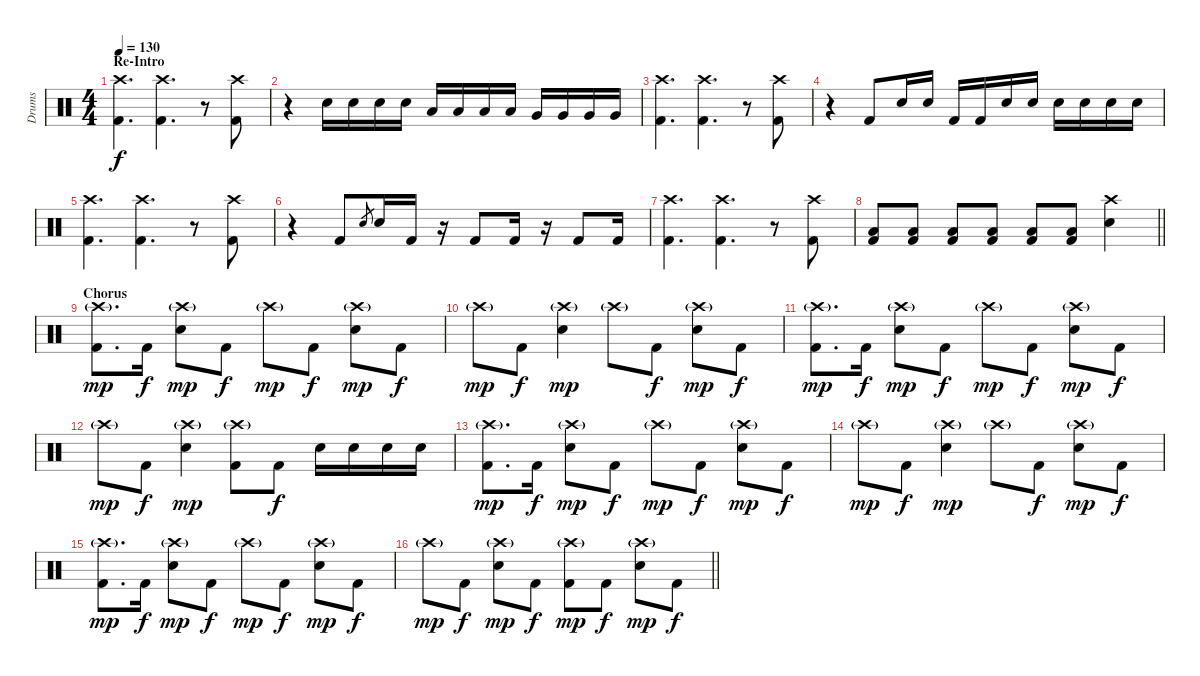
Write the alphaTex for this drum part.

\track ("Drums" "Drums") {instrument percussion}
\staff {score}
\articulation defaults
\ts (4 4)
\section ("" "Re-Intro")
\tempo 130
\clef neutral
\ks c
("Crash high (hit)" "Kick (hit) 2").4{d dy f} ("Crash high (hit)" "Kick (hit) 2").4{d} r.8 ("Crash high (hit)" "Kick (hit) 2").8 |
r.4 "Electric Snare (hit)".16 "Electric Snare (hit)".16 "Electric Snare (hit)".16 "Electric Snare (hit)".16 "Low Tom (hit)".16 "Low Tom (hit)".16 "Low Tom (hit)".16 "Low Tom (hit)".16 "Very Low Tom (hit)".16 "Very Low Tom (hit)".16 "Very Low Tom (hit)".16 "Very Low Tom (hit)".16 |
("Crash high (hit)" "Kick (hit) 2").4{d} ("Crash high (hit)" "Kick (hit) 2").4{d} r.8 ("Crash high (hit)" "Kick (hit) 2").8 |
r.4 "Kick (hit) 2".8 "Electric Snare (hit)".16 "Electric Snare (hit)".16 "Kick (hit) 2".16 "Kick (hit) 2".16 "Electric Snare (hit)".16 "Electric Snare (hit)".16 "Electric Snare (hit)".16 "Electric Snare (hit)".16 "Electric Snare (hit)".16 "Electric Snare (hit)".16 |
("Crash high (hit)" "Kick (hit) 2").4{d} ("Crash high (hit)" "Kick (hit) 2").4{d} r.8 ("Crash high (hit)" "Kick (hit) 2").8 |
r.4 "Kick (hit) 2".8 "Electric Snare (hit)".8{gr} "Electric Snare (hit)".16 "Kick (hit) 2".16 r.16 "Kick (hit) 2".8 "Kick (hit) 2".16 r.16 "Kick (hit) 2".8 "Kick (hit) 2".16 |
("Crash high (hit)" "Kick (hit) 2").4{d} ("Crash high (hit)" "Kick (hit) 2").4{d} r.8 ("Crash high (hit)" "Kick (hit) 2").8 |
\barLineRight lightlight
("Low Tom (hit)" "Kick (hit) 2").8 ("Low Tom (hit)" "Kick (hit) 2").8 ("Low Tom (hit)" "Kick (hit) 2").8 ("Low Tom (hit)" "Kick (hit) 2").8 ("Low Tom (hit)" "Kick (hit) 2").8 ("Low Tom (hit)" "Kick (hit) 2").8 ("Crash high (hit)" "Electric Snare (hit)").4 |
\section ("" "Chorus")
("Crash high (hit)"{g} "Kick (hit) 2").8{d dy mp} "Kick (hit) 2".16{dy f} ("Crash high (hit)"{g} "Electric Snare (hit)").8{dy mp} "Kick (hit) 2".8{dy f} "Crash high (hit)"{g}.8{dy mp} "Kick (hit) 2".8{dy f} ("Crash high (hit)"{g} "Electric Snare (hit)").8{dy mp} "Kick (hit) 2".8{dy f} |
"Crash high (hit)"{g}.8{dy mp} "Kick (hit) 2".8{dy f} ("Crash high (hit)"{g} "Electric Snare (hit)").4{dy mp} "Crash high (hit)"{g}.8 "Kick (hit) 2".8{dy f} ("Crash high (hit)"{g} "Electric Snare (hit)").8{dy mp} "Kick (hit) 2".8{dy f} |
("Crash high (hit)"{g} "Kick (hit) 2").8{d dy mp} "Kick (hit) 2".16{dy f} ("Crash high (hit)"{g} "Electric Snare (hit)").8{dy mp} "Kick (hit) 2".8{dy f} "Crash high (hit)"{g}.8{dy mp} "Kick (hit) 2".8{dy f} ("Crash high (hit)"{g} "Electric Snare (hit)").8{dy mp} "Kick (hit) 2".8{dy f} |
"Crash high (hit)"{g}.8{dy mp} "Kick (hit) 2".8{dy f} ("Crash high (hit)"{g} "Electric Snare (hit)").4{dy mp} ("Crash high (hit)"{g} "Kick (hit) 2").8 "Kick (hit) 2".8{dy f} "Electric Snare (hit)".16 "Electric Snare (hit)".16 "Electric Snare (hit)".16 "Electric Snare (hit)".16 |
("Crash high (hit)"{g} "Kick (hit) 2").8{d dy mp} "Kick (hit) 2".16{dy f} ("Crash high (hit)"{g} "Electric Snare (hit)").8{dy mp} "Kick (hit) 2".8{dy f} "Crash high (hit)"{g}.8{dy mp} "Kick (hit) 2".8{dy f} ("Crash high (hit)"{g} "Electric Snare (hit)").8{dy mp} "Kick (hit) 2".8{dy f} |
"Crash high (hit)"{g}.8{dy mp} "Kick (hit) 2".8{dy f} ("Crash high (hit)"{g} "Electric Snare (hit)").4{dy mp} "Crash high (hit)"{g}.8 "Kick (hit) 2".8{dy f} ("Crash high (hit)"{g} "Electric Snare (hit)").8{dy mp} "Kick (hit) 2".8{dy f} |
("Crash high (hit)"{g} "Kick (hit) 2").8{d dy mp} "Kick (hit) 2".16{dy f} ("Crash high (hit)"{g} "Electric Snare (hit)").8{dy mp} "Kick (hit) 2".8{dy f} "Crash high (hit)"{g}.8{dy mp} "Kick (hit) 2".8{dy f} ("Crash high (hit)"{g} "Electric Snare (hit)").8{dy mp} "Kick (hit) 2".8{dy f} |
\barLineRight lightlight "Crash high (hit)"{g}.8{dy mp} "Kick (hit) 2".8{dy f}
("Crash high (hit)"{g} "Electric Snare (hit)").8{dy mp} "Kick (hit) 2".8{dy f} ("Crash high (hit)"{g} "Kick (hit) 2").8{dy mp} "Kick (hit) 2".8{dy f} ("Crash high (hit)"{g} "Electric Snare (hit)").8{dy mp} "Kick (hit) 2".8{dy f}
